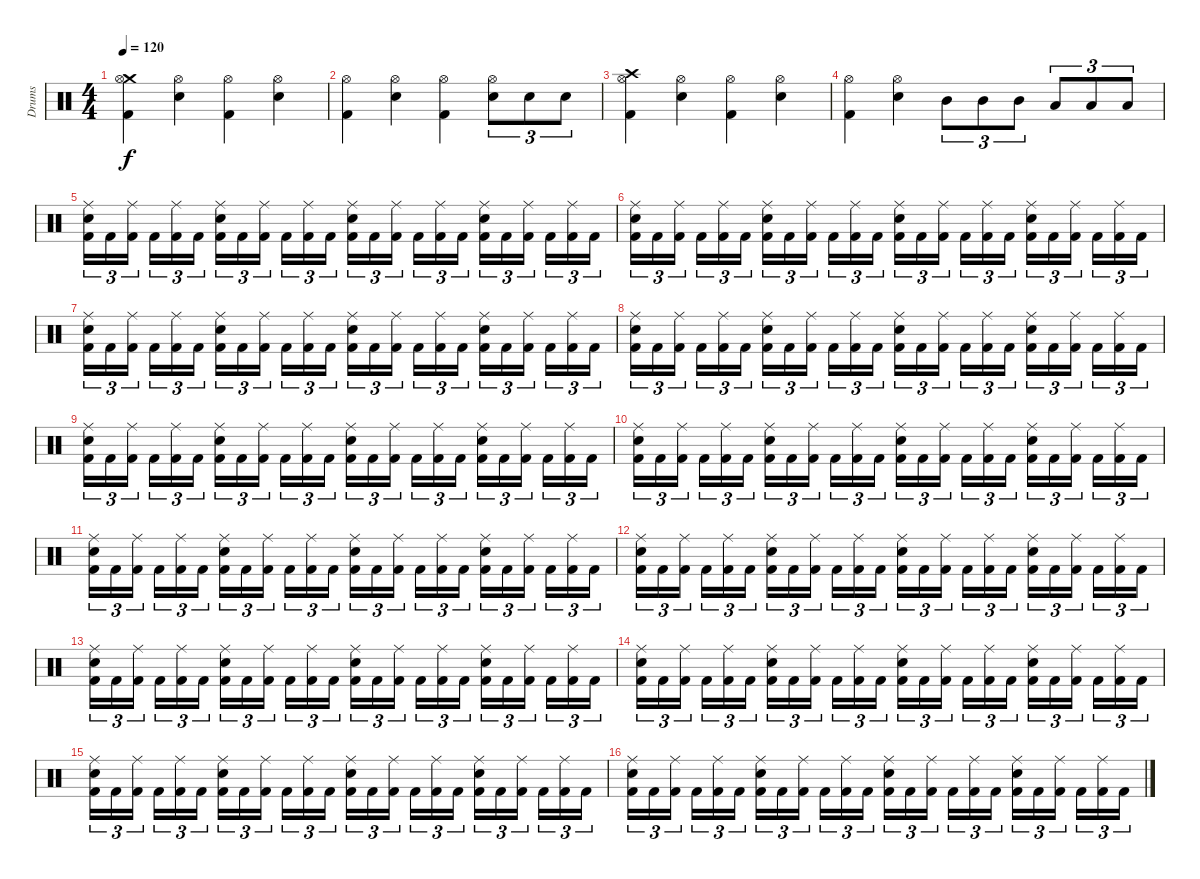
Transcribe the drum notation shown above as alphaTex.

\track ("Drums" "Drums") {instrument percussion}
\staff {score}
\articulation defaults
\ts (4 4)
\tempo 120
\clef neutral
\ks c
("Crash medium (hit)" "Hi-Hat (open)" "Kick (hit) 2").4{dy f} ("Hi-Hat (open)" "Snare (hit) 2").4 ("Hi-Hat (open)" "Kick (hit) 2").4 ("Hi-Hat (open)" "Snare (hit) 2").4 |
("Hi-Hat (open)" "Kick (hit) 2").4 ("Hi-Hat (open)" "Snare (hit) 2").4 ("Hi-Hat (open)" "Kick (hit) 2").4 ("Hi-Hat (open)" "Snare (hit) 2").8{tu (3 2)} "Snare (hit) 2".8{tu (3 2)} "Snare (hit) 2".8{tu (3 2)} |
("Crash high (hit)" "Hi-Hat (open)" "Kick (hit) 2").4 ("Hi-Hat (open)" "Snare (hit) 2").4 ("Hi-Hat (open)" "Kick (hit) 2").4 ("Hi-Hat (open)" "Snare (hit) 2").4 |
("Hi-Hat (open)" "Kick (hit) 2").4 ("Hi-Hat (open)" "Snare (hit) 2").4 "Mid Tom (hit)".8{tu (3 2)} "Mid Tom (hit)".8{tu (3 2)} "Mid Tom (hit)".8{tu (3 2)} "Low Tom (hit)".8{tu (3 2)} "Low Tom (hit)".8{tu (3 2)} "Low Tom (hit)".8{tu (3 2)} |
("Ride (middle)" "Snare (hit) 2" "Kick (hit) 2").16{tu (3 2)} "Kick (hit) 2".16{tu (3 2)} ("Ride (middle)" "Kick (hit) 2").16{tu (3 2)} "Kick (hit) 2".16{tu (3 2)} ("Ride (middle)" "Kick (hit) 2").16{tu (3 2)} "Kick (hit) 2".16{tu (3 2)} ("Ride (middle)" "Snare (hit) 2" "Kick (hit) 2").16{tu (3 2)} "Kick (hit) 2".16{tu (3 2)} ("Ride (middle)" "Kick (hit) 2").16{tu (3 2)} "Kick (hit) 2".16{tu (3 2)} ("Ride (middle)" "Kick (hit) 2").16{tu (3 2)} "Kick (hit) 2".16{tu (3 2)} ("Ride (middle)" "Snare (hit) 2" "Kick (hit) 2").16{tu (3 2)} "Kick (hit) 2".16{tu (3 2)} ("Ride (middle)" "Kick (hit) 2").16{tu (3 2)} "Kick (hit) 2".16{tu (3 2)} ("Ride (middle)" "Kick (hit) 2").16{tu (3 2)} "Kick (hit) 2".16{tu (3 2)} ("Ride (middle)" "Snare (hit) 2" "Kick (hit) 2").16{tu (3 2)} "Kick (hit) 2".16{tu (3 2)} ("Ride (middle)" "Kick (hit) 2").16{tu (3 2)} "Kick (hit) 2".16{tu (3 2)} ("Ride (middle)" "Kick (hit) 2").16{tu (3 2)} "Kick (hit) 2".16{tu (3 2)} |
("Ride (middle)" "Snare (hit) 2" "Kick (hit) 2").16{tu (3 2)} "Kick (hit) 2".16{tu (3 2)} ("Ride (middle)" "Kick (hit) 2").16{tu (3 2)} "Kick (hit) 2".16{tu (3 2)} ("Ride (middle)" "Kick (hit) 2").16{tu (3 2)} "Kick (hit) 2".16{tu (3 2)} ("Ride (middle)" "Snare (hit) 2" "Kick (hit) 2").16{tu (3 2)} "Kick (hit) 2".16{tu (3 2)} ("Ride (middle)" "Kick (hit) 2").16{tu (3 2)} "Kick (hit) 2".16{tu (3 2)} ("Ride (middle)" "Kick (hit) 2").16{tu (3 2)} "Kick (hit) 2".16{tu (3 2)} ("Ride (middle)" "Snare (hit) 2" "Kick (hit) 2").16{tu (3 2)} "Kick (hit) 2".16{tu (3 2)} ("Ride (middle)" "Kick (hit) 2").16{tu (3 2)} "Kick (hit) 2".16{tu (3 2)} ("Ride (middle)" "Kick (hit) 2").16{tu (3 2)} "Kick (hit) 2".16{tu (3 2)} ("Ride (middle)" "Snare (hit) 2" "Kick (hit) 2").16{tu (3 2)} "Kick (hit) 2".16{tu (3 2)} ("Ride (middle)" "Kick (hit) 2").16{tu (3 2)} "Kick (hit) 2".16{tu (3 2)} ("Ride (middle)" "Kick (hit) 2").16{tu (3 2)} "Kick (hit) 2".16{tu (3 2)} |
("Ride (middle)" "Snare (hit) 2" "Kick (hit) 2").16{tu (3 2)} "Kick (hit) 2".16{tu (3 2)} ("Ride (middle)" "Kick (hit) 2").16{tu (3 2)} "Kick (hit) 2".16{tu (3 2)} ("Ride (middle)" "Kick (hit) 2").16{tu (3 2)} "Kick (hit) 2".16{tu (3 2)} ("Ride (middle)" "Snare (hit) 2" "Kick (hit) 2").16{tu (3 2)} "Kick (hit) 2".16{tu (3 2)} ("Ride (middle)" "Kick (hit) 2").16{tu (3 2)} "Kick (hit) 2".16{tu (3 2)} ("Ride (middle)" "Kick (hit) 2").16{tu (3 2)} "Kick (hit) 2".16{tu (3 2)} ("Ride (middle)" "Snare (hit) 2" "Kick (hit) 2").16{tu (3 2)} "Kick (hit) 2".16{tu (3 2)} ("Ride (middle)" "Kick (hit) 2").16{tu (3 2)} "Kick (hit) 2".16{tu (3 2)} ("Ride (middle)" "Kick (hit) 2").16{tu (3 2)} "Kick (hit) 2".16{tu (3 2)} ("Ride (middle)" "Snare (hit) 2" "Kick (hit) 2").16{tu (3 2)} "Kick (hit) 2".16{tu (3 2)} ("Ride (middle)" "Kick (hit) 2").16{tu (3 2)} "Kick (hit) 2".16{tu (3 2)} ("Ride (middle)" "Kick (hit) 2").16{tu (3 2)} "Kick (hit) 2".16{tu (3 2)} |
("Ride (middle)" "Snare (hit) 2" "Kick (hit) 2").16{tu (3 2)} "Kick (hit) 2".16{tu (3 2)} ("Ride (middle)" "Kick (hit) 2").16{tu (3 2)} "Kick (hit) 2".16{tu (3 2)} ("Ride (middle)" "Kick (hit) 2").16{tu (3 2)} "Kick (hit) 2".16{tu (3 2)} ("Ride (middle)" "Snare (hit) 2" "Kick (hit) 2").16{tu (3 2)} "Kick (hit) 2".16{tu (3 2)} ("Ride (middle)" "Kick (hit) 2").16{tu (3 2)} "Kick (hit) 2".16{tu (3 2)} ("Ride (middle)" "Kick (hit) 2").16{tu (3 2)} "Kick (hit) 2".16{tu (3 2)} ("Ride (middle)" "Snare (hit) 2" "Kick (hit) 2").16{tu (3 2)} "Kick (hit) 2".16{tu (3 2)} ("Ride (middle)" "Kick (hit) 2").16{tu (3 2)} "Kick (hit) 2".16{tu (3 2)} ("Ride (middle)" "Kick (hit) 2").16{tu (3 2)} "Kick (hit) 2".16{tu (3 2)} ("Ride (middle)" "Snare (hit) 2" "Kick (hit) 2").16{tu (3 2)} "Kick (hit) 2".16{tu (3 2)} ("Ride (middle)" "Kick (hit) 2").16{tu (3 2)} "Kick (hit) 2".16{tu (3 2)} ("Ride (middle)" "Kick (hit) 2").16{tu (3 2)} "Kick (hit) 2".16{tu (3 2)} |
("Ride (middle)" "Snare (hit) 2" "Kick (hit) 2").16{tu (3 2)} "Kick (hit) 2".16{tu (3 2)} ("Ride (middle)" "Kick (hit) 2").16{tu (3 2)} "Kick (hit) 2".16{tu (3 2)} ("Ride (middle)" "Kick (hit) 2").16{tu (3 2)} "Kick (hit) 2".16{tu (3 2)} ("Ride (middle)" "Snare (hit) 2" "Kick (hit) 2").16{tu (3 2)} "Kick (hit) 2".16{tu (3 2)} ("Ride (middle)" "Kick (hit) 2").16{tu (3 2)} "Kick (hit) 2".16{tu (3 2)} ("Ride (middle)" "Kick (hit) 2").16{tu (3 2)} "Kick (hit) 2".16{tu (3 2)} ("Ride (middle)" "Snare (hit) 2" "Kick (hit) 2").16{tu (3 2)} "Kick (hit) 2".16{tu (3 2)} ("Ride (middle)" "Kick (hit) 2").16{tu (3 2)} "Kick (hit) 2".16{tu (3 2)} ("Ride (middle)" "Kick (hit) 2").16{tu (3 2)} "Kick (hit) 2".16{tu (3 2)} ("Ride (middle)" "Snare (hit) 2" "Kick (hit) 2").16{tu (3 2)} "Kick (hit) 2".16{tu (3 2)} ("Ride (middle)" "Kick (hit) 2").16{tu (3 2)} "Kick (hit) 2".16{tu (3 2)} ("Ride (middle)" "Kick (hit) 2").16{tu (3 2)} "Kick (hit) 2".16{tu (3 2)} |
("Ride (middle)" "Snare (hit) 2" "Kick (hit) 2").16{tu (3 2)} "Kick (hit) 2".16{tu (3 2)} ("Ride (middle)" "Kick (hit) 2").16{tu (3 2)} "Kick (hit) 2".16{tu (3 2)} ("Ride (middle)" "Kick (hit) 2").16{tu (3 2)} "Kick (hit) 2".16{tu (3 2)} ("Ride (middle)" "Snare (hit) 2" "Kick (hit) 2").16{tu (3 2)} "Kick (hit) 2".16{tu (3 2)} ("Ride (middle)" "Kick (hit) 2").16{tu (3 2)} "Kick (hit) 2".16{tu (3 2)} ("Ride (middle)" "Kick (hit) 2").16{tu (3 2)} "Kick (hit) 2".16{tu (3 2)} ("Ride (middle)" "Snare (hit) 2" "Kick (hit) 2").16{tu (3 2)} "Kick (hit) 2".16{tu (3 2)} ("Ride (middle)" "Kick (hit) 2").16{tu (3 2)} "Kick (hit) 2".16{tu (3 2)} ("Ride (middle)" "Kick (hit) 2").16{tu (3 2)} "Kick (hit) 2".16{tu (3 2)} ("Ride (middle)" "Snare (hit) 2" "Kick (hit) 2").16{tu (3 2)} "Kick (hit) 2".16{tu (3 2)} ("Ride (middle)" "Kick (hit) 2").16{tu (3 2)} "Kick (hit) 2".16{tu (3 2)} ("Ride (middle)" "Kick (hit) 2").16{tu (3 2)} "Kick (hit) 2".16{tu (3 2)} |
("Ride (middle)" "Snare (hit) 2" "Kick (hit) 2").16{tu (3 2)} "Kick (hit) 2".16{tu (3 2)} ("Ride (middle)" "Kick (hit) 2").16{tu (3 2)} "Kick (hit) 2".16{tu (3 2)} ("Ride (middle)" "Kick (hit) 2").16{tu (3 2)} "Kick (hit) 2".16{tu (3 2)} ("Ride (middle)" "Snare (hit) 2" "Kick (hit) 2").16{tu (3 2)} "Kick (hit) 2".16{tu (3 2)} ("Ride (middle)" "Kick (hit) 2").16{tu (3 2)} "Kick (hit) 2".16{tu (3 2)} ("Ride (middle)" "Kick (hit) 2").16{tu (3 2)} "Kick (hit) 2".16{tu (3 2)} ("Ride (middle)" "Snare (hit) 2" "Kick (hit) 2").16{tu (3 2)} "Kick (hit) 2".16{tu (3 2)} ("Ride (middle)" "Kick (hit) 2").16{tu (3 2)} "Kick (hit) 2".16{tu (3 2)} ("Ride (middle)" "Kick (hit) 2").16{tu (3 2)} "Kick (hit) 2".16{tu (3 2)} ("Ride (middle)" "Snare (hit) 2" "Kick (hit) 2").16{tu (3 2)} "Kick (hit) 2".16{tu (3 2)} ("Ride (middle)" "Kick (hit) 2").16{tu (3 2)} "Kick (hit) 2".16{tu (3 2)} ("Ride (middle)" "Kick (hit) 2").16{tu (3 2)} "Kick (hit) 2".16{tu (3 2)} |
("Ride (middle)" "Snare (hit) 2" "Kick (hit) 2").16{tu (3 2)} "Kick (hit) 2".16{tu (3 2)} ("Ride (middle)" "Kick (hit) 2").16{tu (3 2)} "Kick (hit) 2".16{tu (3 2)} ("Ride (middle)" "Kick (hit) 2").16{tu (3 2)} "Kick (hit) 2".16{tu (3 2)} ("Ride (middle)" "Snare (hit) 2" "Kick (hit) 2").16{tu (3 2)} "Kick (hit) 2".16{tu (3 2)} ("Ride (middle)" "Kick (hit) 2").16{tu (3 2)} "Kick (hit) 2".16{tu (3 2)} ("Ride (middle)" "Kick (hit) 2").16{tu (3 2)} "Kick (hit) 2".16{tu (3 2)} ("Ride (middle)" "Snare (hit) 2" "Kick (hit) 2").16{tu (3 2)} "Kick (hit) 2".16{tu (3 2)} ("Ride (middle)" "Kick (hit) 2").16{tu (3 2)} "Kick (hit) 2".16{tu (3 2)} ("Ride (middle)" "Kick (hit) 2").16{tu (3 2)} "Kick (hit) 2".16{tu (3 2)} ("Ride (middle)" "Snare (hit) 2" "Kick (hit) 2").16{tu (3 2)} "Kick (hit) 2".16{tu (3 2)} ("Ride (middle)" "Kick (hit) 2").16{tu (3 2)} "Kick (hit) 2".16{tu (3 2)} ("Ride (middle)" "Kick (hit) 2").16{tu (3 2)} "Kick (hit) 2".16{tu (3 2)} |
("Ride (middle)" "Snare (hit) 2" "Kick (hit) 2").16{tu (3 2)} "Kick (hit) 2".16{tu (3 2)} ("Ride (middle)" "Kick (hit) 2").16{tu (3 2)} "Kick (hit) 2".16{tu (3 2)} ("Ride (middle)" "Kick (hit) 2").16{tu (3 2)} "Kick (hit) 2".16{tu (3 2)} ("Ride (middle)" "Snare (hit) 2" "Kick (hit) 2").16{tu (3 2)} "Kick (hit) 2".16{tu (3 2)} ("Ride (middle)" "Kick (hit) 2").16{tu (3 2)} "Kick (hit) 2".16{tu (3 2)} ("Ride (middle)" "Kick (hit) 2").16{tu (3 2)} "Kick (hit) 2".16{tu (3 2)} ("Ride (middle)" "Snare (hit) 2" "Kick (hit) 2").16{tu (3 2)} "Kick (hit) 2".16{tu (3 2)} ("Ride (middle)" "Kick (hit) 2").16{tu (3 2)} "Kick (hit) 2".16{tu (3 2)} ("Ride (middle)" "Kick (hit) 2").16{tu (3 2)} "Kick (hit) 2".16{tu (3 2)} ("Ride (middle)" "Snare (hit) 2" "Kick (hit) 2").16{tu (3 2)} "Kick (hit) 2".16{tu (3 2)} ("Ride (middle)" "Kick (hit) 2").16{tu (3 2)} "Kick (hit) 2".16{tu (3 2)} ("Ride (middle)" "Kick (hit) 2").16{tu (3 2)} "Kick (hit) 2".16{tu (3 2)} |
("Ride (middle)" "Snare (hit) 2" "Kick (hit) 2").16{tu (3 2)} "Kick (hit) 2".16{tu (3 2)} ("Ride (middle)" "Kick (hit) 2").16{tu (3 2)} "Kick (hit) 2".16{tu (3 2)} ("Ride (middle)" "Kick (hit) 2").16{tu (3 2)} "Kick (hit) 2".16{tu (3 2)} ("Ride (middle)" "Snare (hit) 2" "Kick (hit) 2").16{tu (3 2)} "Kick (hit) 2".16{tu (3 2)} ("Ride (middle)" "Kick (hit) 2").16{tu (3 2)} "Kick (hit) 2".16{tu (3 2)} ("Ride (middle)" "Kick (hit) 2").16{tu (3 2)} "Kick (hit) 2".16{tu (3 2)} ("Ride (middle)" "Snare (hit) 2" "Kick (hit) 2").16{tu (3 2)} "Kick (hit) 2".16{tu (3 2)} ("Ride (middle)" "Kick (hit) 2").16{tu (3 2)} "Kick (hit) 2".16{tu (3 2)} ("Ride (middle)" "Kick (hit) 2").16{tu (3 2)} "Kick (hit) 2".16{tu (3 2)} ("Ride (middle)" "Snare (hit) 2" "Kick (hit) 2").16{tu (3 2)} "Kick (hit) 2".16{tu (3 2)} ("Ride (middle)" "Kick (hit) 2").16{tu (3 2)} "Kick (hit) 2".16{tu (3 2)} ("Ride (middle)" "Kick (hit) 2").16{tu (3 2)} "Kick (hit) 2".16{tu (3 2)} |
("Ride (middle)" "Snare (hit) 2" "Kick (hit) 2").16{tu (3 2)} "Kick (hit) 2".16{tu (3 2)} ("Ride (middle)" "Kick (hit) 2").16{tu (3 2)} "Kick (hit) 2".16{tu (3 2)} ("Ride (middle)" "Kick (hit) 2").16{tu (3 2)} "Kick (hit) 2".16{tu (3 2)} ("Ride (middle)" "Snare (hit) 2" "Kick (hit) 2").16{tu (3 2)} "Kick (hit) 2".16{tu (3 2)} ("Ride (middle)" "Kick (hit) 2").16{tu (3 2)} "Kick (hit) 2".16{tu (3 2)} ("Ride (middle)" "Kick (hit) 2").16{tu (3 2)} "Kick (hit) 2".16{tu (3 2)} ("Ride (middle)" "Snare (hit) 2" "Kick (hit) 2").16{tu (3 2)} "Kick (hit) 2".16{tu (3 2)} ("Ride (middle)" "Kick (hit) 2").16{tu (3 2)} "Kick (hit) 2".16{tu (3 2)} ("Ride (middle)" "Kick (hit) 2").16{tu (3 2)} "Kick (hit) 2".16{tu (3 2)} ("Ride (middle)" "Snare (hit) 2" "Kick (hit) 2").16{tu (3 2)} "Kick (hit) 2".16{tu (3 2)} ("Ride (middle)" "Kick (hit) 2").16{tu (3 2)} "Kick (hit) 2".16{tu (3 2)} ("Ride (middle)" "Kick (hit) 2").16{tu (3 2)} "Kick (hit) 2".16{tu (3 2)} |
("Ride (middle)" "Snare (hit) 2" "Kick (hit) 2").16{tu (3 2)} "Kick (hit) 2".16{tu (3 2)} ("Ride (middle)" "Kick (hit) 2").16{tu (3 2)} "Kick (hit) 2".16{tu (3 2)} ("Ride (middle)" "Kick (hit) 2").16{tu (3 2)} "Kick (hit) 2".16{tu (3 2)} ("Ride (middle)" "Snare (hit) 2" "Kick (hit) 2").16{tu (3 2)} "Kick (hit) 2".16{tu (3 2)} ("Ride (middle)" "Kick (hit) 2").16{tu (3 2)} "Kick (hit) 2".16{tu (3 2)} ("Ride (middle)" "Kick (hit) 2").16{tu (3 2)} "Kick (hit) 2".16{tu (3 2)} ("Ride (middle)" "Snare (hit) 2" "Kick (hit) 2").16{tu (3 2)} "Kick (hit) 2".16{tu (3 2)} ("Ride (middle)" "Kick (hit) 2").16{tu (3 2)} "Kick (hit) 2".16{tu (3 2)} ("Ride (middle)" "Kick (hit) 2").16{tu (3 2)} "Kick (hit) 2".16{tu (3 2)} ("Ride (middle)" "Snare (hit) 2" "Kick (hit) 2").16{tu (3 2)} "Kick (hit) 2".16{tu (3 2)} ("Ride (middle)" "Kick (hit) 2").16{tu (3 2)} "Kick (hit) 2".16{tu (3 2)} ("Ride (middle)" "Kick (hit) 2").16{tu (3 2)} "Kick (hit) 2".16{tu (3 2)}
